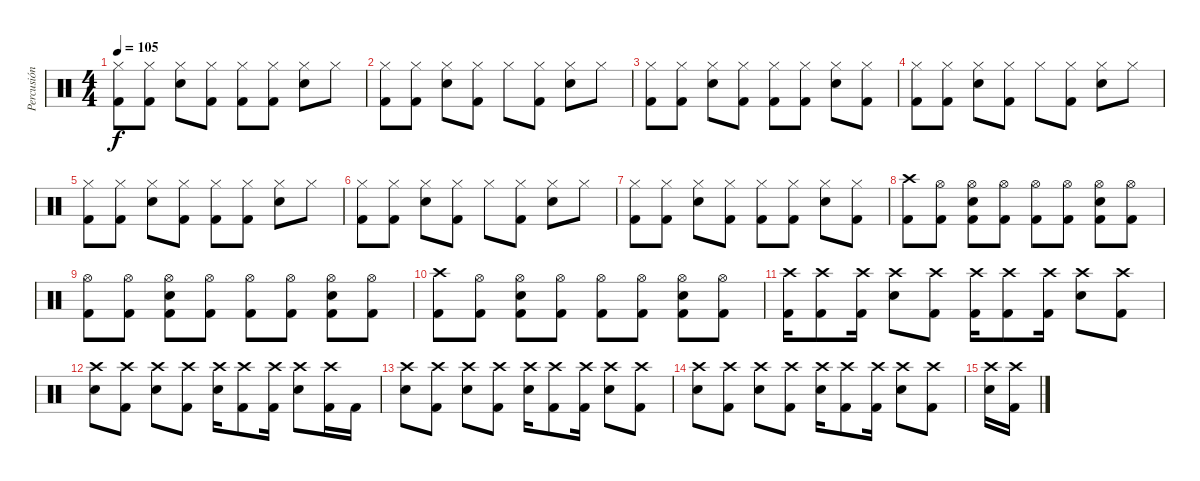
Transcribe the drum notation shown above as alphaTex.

\track ("Percusión" "Percusión") {instrument percussion}
\staff {score}
\articulation defaults
\ts (4 4)
\tempo 105
\clef neutral
\ks c
("Hi-Hat (closed)" "Kick (hit) 2").8{dy f} ("Hi-Hat (closed)" "Kick (hit) 2").8 ("Hi-Hat (closed)" "Electric Snare (hit)").8 ("Hi-Hat (closed)" "Kick (hit) 2").8 ("Hi-Hat (closed)" "Kick (hit) 2").8 ("Hi-Hat (closed)" "Kick (hit) 2").8 ("Hi-Hat (closed)" "Electric Snare (hit)").8 "Hi-Hat (closed)".8 |
("Hi-Hat (closed)" "Kick (hit) 2").8{volume 5} ("Hi-Hat (closed)" "Kick (hit) 2").8 ("Hi-Hat (closed)" "Electric Snare (hit)").8 ("Hi-Hat (closed)" "Kick (hit) 2").8 "Hi-Hat (closed)".8 ("Hi-Hat (closed)" "Kick (hit) 2").8 ("Hi-Hat (closed)" "Electric Snare (hit)").8 "Hi-Hat (closed)".8 |
("Hi-Hat (closed)" "Kick (hit) 2").8 ("Hi-Hat (closed)" "Kick (hit) 2").8 ("Hi-Hat (closed)" "Electric Snare (hit)").8 ("Hi-Hat (closed)" "Kick (hit) 2").8 ("Hi-Hat (closed)" "Kick (hit) 2").8 ("Hi-Hat (closed)" "Kick (hit) 2").8 ("Hi-Hat (closed)" "Electric Snare (hit)").8 ("Hi-Hat (closed)" "Kick (hit) 2").8 |
("Hi-Hat (closed)" "Kick (hit) 2").8 ("Hi-Hat (closed)" "Kick (hit) 2").8 ("Hi-Hat (closed)" "Electric Snare (hit)").8 ("Hi-Hat (closed)" "Kick (hit) 2").8 "Hi-Hat (closed)".8 ("Hi-Hat (closed)" "Kick (hit) 2").8 ("Hi-Hat (closed)" "Electric Snare (hit)").8 "Hi-Hat (closed)".8 |
("Hi-Hat (closed)" "Kick (hit) 2").8 ("Hi-Hat (closed)" "Kick (hit) 2").8 ("Hi-Hat (closed)" "Electric Snare (hit)").8 ("Hi-Hat (closed)" "Kick (hit) 2").8 ("Hi-Hat (closed)" "Kick (hit) 2").8 ("Hi-Hat (closed)" "Kick (hit) 2").8 ("Hi-Hat (closed)" "Electric Snare (hit)").8 "Hi-Hat (closed)".8 |
("Hi-Hat (closed)" "Kick (hit) 2").8{volume 2} ("Hi-Hat (closed)" "Kick (hit) 2").8 ("Hi-Hat (closed)" "Electric Snare (hit)").8 ("Hi-Hat (closed)" "Kick (hit) 2").8 "Hi-Hat (closed)".8 ("Hi-Hat (closed)" "Kick (hit) 2").8 ("Hi-Hat (closed)" "Electric Snare (hit)").8 "Hi-Hat (closed)".8 |
("Hi-Hat (closed)" "Kick (hit) 2").8{volume 0} ("Hi-Hat (closed)" "Kick (hit) 2").8 ("Hi-Hat (closed)" "Electric Snare (hit)").8 ("Hi-Hat (closed)" "Kick (hit) 2").8 ("Hi-Hat (closed)" "Kick (hit) 2").8 ("Hi-Hat (closed)" "Kick (hit) 2").8 ("Hi-Hat (closed)" "Electric Snare (hit)").8 ("Hi-Hat (closed)" "Kick (hit) 2").8 |
("Crash high (hit)" "Kick (hit) 2").8{volume 15} ("Hi-Hat (open)" "Kick (hit) 2").8 ("Hi-Hat (open)" "Electric Snare (hit)" "Kick (hit) 2").8 ("Hi-Hat (open)" "Kick (hit) 2").8 ("Hi-Hat (open)" "Kick (hit) 2").8 ("Hi-Hat (open)" "Kick (hit) 2").8 ("Hi-Hat (open)" "Electric Snare (hit)" "Kick (hit) 2").8 ("Hi-Hat (open)" "Kick (hit) 2").8 |
("Hi-Hat (open)" "Kick (hit) 2").8 ("Hi-Hat (open)" "Kick (hit) 2").8 ("Hi-Hat (open)" "Electric Snare (hit)" "Kick (hit) 2").8 ("Hi-Hat (open)" "Kick (hit) 2").8 ("Hi-Hat (open)" "Kick (hit) 2").8 ("Hi-Hat (open)" "Kick (hit) 2").8 ("Hi-Hat (open)" "Electric Snare (hit)" "Kick (hit) 2").8 ("Hi-Hat (open)" "Kick (hit) 2").8 |
("Crash high (hit)" "Kick (hit) 2").8 ("Hi-Hat (open)" "Kick (hit) 2").8 ("Hi-Hat (open)" "Electric Snare (hit)" "Kick (hit) 2").8 ("Hi-Hat (open)" "Kick (hit) 2").8 ("Hi-Hat (open)" "Kick (hit) 2").8 ("Hi-Hat (open)" "Kick (hit) 2").8 ("Hi-Hat (open)" "Electric Snare (hit)" "Kick (hit) 2").8 ("Hi-Hat (open)" "Kick (hit) 2").8 |
("Crash high (hit)" "Kick (hit) 2").16 ("Crash high (hit)" "Kick (hit) 2").8 ("Crash high (hit)" "Kick (hit) 2").16 ("Crash high (hit)" "Electric Snare (hit)").8 ("Crash high (hit)" "Kick (hit) 2").8 ("Crash high (hit)" "Kick (hit) 2").16 ("Crash high (hit)" "Kick (hit) 2").8 ("Crash high (hit)" "Kick (hit) 2").16 ("Crash high (hit)" "Electric Snare (hit)").8 ("Crash high (hit)" "Kick (hit) 2").8 |
("Crash high (hit)" "Electric Snare (hit)").8 ("Crash high (hit)" "Kick (hit) 2").8 ("Crash high (hit)" "Electric Snare (hit)").8 ("Crash high (hit)" "Kick (hit) 2").8 ("Crash high (hit)" "Electric Snare (hit)").16 ("Crash high (hit)" "Kick (hit) 2").8 ("Crash high (hit)" "Kick (hit) 2").16 ("Crash high (hit)" "Electric Snare (hit)").8 ("Crash high (hit)" "Kick (hit) 2").16 "Kick (hit) 2".16 |
("Crash high (hit)" "Electric Snare (hit)").8 ("Crash high (hit)" "Kick (hit) 2").8 ("Crash high (hit)" "Electric Snare (hit)").8 ("Crash high (hit)" "Kick (hit) 2").8 ("Crash high (hit)" "Electric Snare (hit)").16 ("Crash high (hit)" "Kick (hit) 2").8 ("Crash high (hit)" "Kick (hit) 2").16 ("Crash high (hit)" "Electric Snare (hit)").8 ("Crash high (hit)" "Kick (hit) 2").8 |
("Crash high (hit)" "Electric Snare (hit)").8 ("Crash high (hit)" "Kick (hit) 2").8 ("Crash high (hit)" "Electric Snare (hit)").8 ("Crash high (hit)" "Kick (hit) 2").8 ("Crash high (hit)" "Electric Snare (hit)").16 ("Crash high (hit)" "Kick (hit) 2").8 ("Crash high (hit)" "Kick (hit) 2").16 ("Crash high (hit)" "Electric Snare (hit)").8 ("Crash high (hit)" "Kick (hit) 2").8 |
("Crash high (hit)" "Electric Snare (hit)").16 ("Crash high (hit)" "Kick (hit) 2").16
